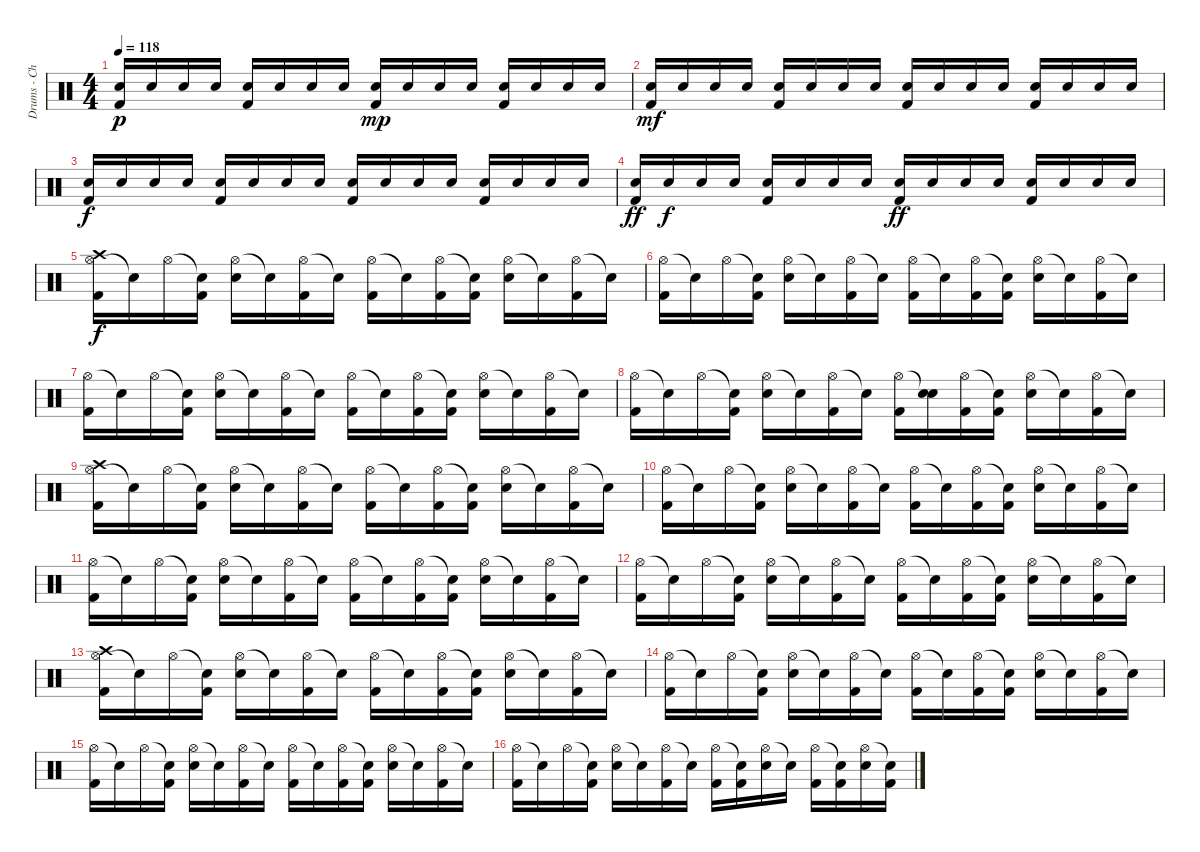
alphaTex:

\track ("Drums - Chad" "Drums - Ch") {instrument percussion}
\staff {score}
\articulation defaults
\ts (4 4)
\tempo 118
\clef neutral
\ks c
("Kick (hit) 2" "Electric Snare (hit)").16{dy p} "Electric Snare (hit)".16 "Electric Snare (hit)".16 "Electric Snare (hit)".16 ("Kick (hit) 2" "Electric Snare (hit)").16 "Electric Snare (hit)".16 "Electric Snare (hit)".16 "Electric Snare (hit)".16 ("Kick (hit) 2" "Electric Snare (hit)").16{dy mp} "Electric Snare (hit)".16 "Electric Snare (hit)".16 "Electric Snare (hit)".16 ("Kick (hit) 2" "Electric Snare (hit)").16 "Electric Snare (hit)".16 "Electric Snare (hit)".16 "Electric Snare (hit)".16 |
("Kick (hit) 2" "Electric Snare (hit)").16{dy mf} "Electric Snare (hit)".16 "Electric Snare (hit)".16 "Electric Snare (hit)".16 ("Kick (hit) 2" "Electric Snare (hit)").16 "Electric Snare (hit)".16 "Electric Snare (hit)".16 "Electric Snare (hit)".16 ("Kick (hit) 2" "Electric Snare (hit)").16 "Electric Snare (hit)".16 "Electric Snare (hit)".16 "Electric Snare (hit)".16 ("Kick (hit) 2" "Electric Snare (hit)").16 "Electric Snare (hit)".16 "Electric Snare (hit)".16 "Electric Snare (hit)".16 |
("Kick (hit) 2" "Electric Snare (hit)").16{dy f} "Electric Snare (hit)".16 "Electric Snare (hit)".16 "Electric Snare (hit)".16 ("Kick (hit) 2" "Electric Snare (hit)").16 "Electric Snare (hit)".16 "Electric Snare (hit)".16 "Electric Snare (hit)".16 ("Kick (hit) 2" "Electric Snare (hit)").16 "Electric Snare (hit)".16 "Electric Snare (hit)".16 "Electric Snare (hit)".16 ("Kick (hit) 2" "Electric Snare (hit)").16 "Electric Snare (hit)".16 "Electric Snare (hit)".16 "Electric Snare (hit)".16 |
("Kick (hit) 2" "Electric Snare (hit)").16{dy ff} "Electric Snare (hit)".16{dy f} "Electric Snare (hit)".16 "Electric Snare (hit)".16 ("Kick (hit) 2" "Electric Snare (hit)").16 "Electric Snare (hit)".16 "Electric Snare (hit)".16 "Electric Snare (hit)".16 ("Kick (hit) 2" "Electric Snare (hit)").16{dy ff} "Electric Snare (hit)".16 "Electric Snare (hit)".16 "Electric Snare (hit)".16 ("Kick (hit) 2" "Electric Snare (hit)").16 "Electric Snare (hit)".16 "Electric Snare (hit)".16 "Electric Snare (hit)".16 |
("Hi-Hat (open)" "Kick (hit) 2" "Crash high (hit)").16{dy f volume 15} "Snare (hit)"{t}.16 "Hi-Hat (open)".16 ("Snare (hit)"{t} "Kick (hit) 2").16 ("Hi-Hat (open)" "Electric Snare (hit)").16 "Snare (hit)"{t}.16 ("Hi-Hat (open)" "Kick (hit) 2").16 "Snare (hit)"{t}.16 ("Hi-Hat (open)" "Kick (hit) 2").16 "Snare (hit)"{t}.16 ("Hi-Hat (open)" "Kick (hit) 2").16 ("Snare (hit)"{t} "Kick (hit) 2").16 ("Hi-Hat (open)" "Electric Snare (hit)").16 "Snare (hit)"{t}.16 ("Hi-Hat (open)" "Kick (hit) 2").16 "Snare (hit)"{t}.16 |
("Hi-Hat (open)" "Kick (hit) 2").16 "Snare (hit)"{t}.16 "Hi-Hat (open)".16 ("Snare (hit)"{t} "Kick (hit) 2").16 ("Hi-Hat (open)" "Electric Snare (hit)").16 "Snare (hit)"{t}.16 ("Hi-Hat (open)" "Kick (hit) 2").16 "Snare (hit)"{t}.16 ("Hi-Hat (open)" "Kick (hit) 2").16 "Snare (hit)"{t}.16 ("Hi-Hat (open)" "Kick (hit) 2").16 ("Snare (hit)"{t} "Kick (hit) 2").16 ("Hi-Hat (open)" "Electric Snare (hit)").16 "Snare (hit)"{t}.16 ("Hi-Hat (open)" "Kick (hit) 2").16 "Snare (hit)"{t}.16 |
("Hi-Hat (open)" "Kick (hit) 2").16 "Snare (hit)"{t}.16 "Hi-Hat (open)".16 ("Snare (hit)"{t} "Kick (hit) 2").16 ("Hi-Hat (open)" "Electric Snare (hit)").16 "Snare (hit)"{t}.16 ("Hi-Hat (open)" "Kick (hit) 2").16 "Snare (hit)"{t}.16 ("Hi-Hat (open)" "Kick (hit) 2").16 "Snare (hit)"{t}.16 ("Hi-Hat (open)" "Kick (hit) 2").16 ("Snare (hit)"{t} "Kick (hit) 2").16 ("Hi-Hat (open)" "Electric Snare (hit)").16 "Snare (hit)"{t}.16 ("Hi-Hat (open)" "Kick (hit) 2").16 "Snare (hit)"{t}.16 |
("Hi-Hat (open)" "Kick (hit) 2").16 "Snare (hit)"{t}.16 "Hi-Hat (open)".16 ("Snare (hit)"{t} "Kick (hit) 2").16 ("Hi-Hat (open)" "Electric Snare (hit)").16 "Snare (hit)"{t}.16 ("Hi-Hat (open)" "Kick (hit) 2").16 "Snare (hit)"{t}.16 ("Hi-Hat (open)" "Kick (hit) 2").16 ("Snare (hit)"{t} "Electric Snare (hit)").16 ("Hi-Hat (open)" "Kick (hit) 2").16 ("Snare (hit)"{t} "Kick (hit) 2").16 ("Hi-Hat (open)" "Electric Snare (hit)").16 "Snare (hit)"{t}.16 ("Hi-Hat (open)" "Kick (hit) 2").16 "Snare (hit)"{t}.16 |
("Hi-Hat (open)" "Kick (hit) 2" "Crash high (hit)").16 "Snare (hit)"{t}.16 "Hi-Hat (open)".16 ("Snare (hit)"{t} "Kick (hit) 2").16 ("Hi-Hat (open)" "Electric Snare (hit)").16 "Snare (hit)"{t}.16 ("Hi-Hat (open)" "Kick (hit) 2").16 "Snare (hit)"{t}.16 ("Hi-Hat (open)" "Kick (hit) 2").16 "Snare (hit)"{t}.16 ("Hi-Hat (open)" "Kick (hit) 2").16 ("Snare (hit)"{t} "Kick (hit) 2").16 ("Hi-Hat (open)" "Electric Snare (hit)").16 "Snare (hit)"{t}.16 ("Hi-Hat (open)" "Kick (hit) 2").16 "Snare (hit)"{t}.16 |
("Hi-Hat (open)" "Kick (hit) 2").16 "Snare (hit)"{t}.16 "Hi-Hat (open)".16 ("Snare (hit)"{t} "Kick (hit) 2").16 ("Hi-Hat (open)" "Electric Snare (hit)").16 "Snare (hit)"{t}.16 ("Hi-Hat (open)" "Kick (hit) 2").16 "Snare (hit)"{t}.16 ("Hi-Hat (open)" "Kick (hit) 2").16 "Snare (hit)"{t}.16 ("Hi-Hat (open)" "Kick (hit) 2").16 ("Snare (hit)"{t} "Kick (hit) 2").16 ("Hi-Hat (open)" "Electric Snare (hit)").16 "Snare (hit)"{t}.16 ("Hi-Hat (open)" "Kick (hit) 2").16 "Snare (hit)"{t}.16 |
("Hi-Hat (open)" "Kick (hit) 2").16 "Snare (hit)"{t}.16 "Hi-Hat (open)".16 ("Snare (hit)"{t} "Kick (hit) 2").16 ("Hi-Hat (open)" "Electric Snare (hit)").16 "Snare (hit)"{t}.16 ("Hi-Hat (open)" "Kick (hit) 2").16 "Snare (hit)"{t}.16 ("Hi-Hat (open)" "Kick (hit) 2").16 "Snare (hit)"{t}.16 ("Hi-Hat (open)" "Kick (hit) 2").16 ("Snare (hit)"{t} "Kick (hit) 2").16 ("Hi-Hat (open)" "Electric Snare (hit)").16 "Snare (hit)"{t}.16 ("Hi-Hat (open)" "Kick (hit) 2").16 "Snare (hit)"{t}.16 |
("Hi-Hat (open)" "Kick (hit) 2").16 "Snare (hit)"{t}.16 "Hi-Hat (open)".16 ("Snare (hit)"{t} "Kick (hit) 2").16 ("Hi-Hat (open)" "Electric Snare (hit)").16 "Snare (hit)"{t}.16 ("Hi-Hat (open)" "Kick (hit) 2").16 "Snare (hit)"{t}.16 ("Hi-Hat (open)" "Kick (hit) 2").16 "Snare (hit)"{t}.16 ("Hi-Hat (open)" "Kick (hit) 2").16 ("Snare (hit)"{t} "Kick (hit) 2").16 ("Hi-Hat (open)" "Electric Snare (hit)").16 "Snare (hit)"{t}.16 ("Hi-Hat (open)" "Kick (hit) 2").16 "Snare (hit)"{t}.16 |
("Hi-Hat (open)" "Kick (hit) 2" "Crash high (hit)").16 "Snare (hit)"{t}.16 "Hi-Hat (open)".16 ("Snare (hit)"{t} "Kick (hit) 2").16 ("Hi-Hat (open)" "Electric Snare (hit)").16 "Snare (hit)"{t}.16 ("Hi-Hat (open)" "Kick (hit) 2").16 "Snare (hit)"{t}.16 ("Hi-Hat (open)" "Kick (hit) 2").16 "Snare (hit)"{t}.16 ("Hi-Hat (open)" "Kick (hit) 2").16 ("Snare (hit)"{t} "Kick (hit) 2").16 ("Hi-Hat (open)" "Electric Snare (hit)").16 "Snare (hit)"{t}.16 ("Hi-Hat (open)" "Kick (hit) 2").16 "Snare (hit)"{t}.16 |
("Hi-Hat (open)" "Kick (hit) 2").16 "Snare (hit)"{t}.16 "Hi-Hat (open)".16 ("Snare (hit)"{t} "Kick (hit) 2").16 ("Hi-Hat (open)" "Electric Snare (hit)").16 "Snare (hit)"{t}.16 ("Hi-Hat (open)" "Kick (hit) 2").16 "Snare (hit)"{t}.16 ("Hi-Hat (open)" "Kick (hit) 2").16 "Snare (hit)"{t}.16 ("Hi-Hat (open)" "Kick (hit) 2").16 ("Snare (hit)"{t} "Kick (hit) 2").16 ("Hi-Hat (open)" "Electric Snare (hit)").16 "Snare (hit)"{t}.16 ("Hi-Hat (open)" "Kick (hit) 2").16 "Snare (hit)"{t}.16 |
("Hi-Hat (open)" "Kick (hit) 2").16 "Snare (hit)"{t}.16 "Hi-Hat (open)".16 ("Snare (hit)"{t} "Kick (hit) 2").16 ("Hi-Hat (open)" "Electric Snare (hit)").16 "Snare (hit)"{t}.16 ("Hi-Hat (open)" "Kick (hit) 2").16 "Snare (hit)"{t}.16 ("Hi-Hat (open)" "Kick (hit) 2").16 "Snare (hit)"{t}.16 ("Hi-Hat (open)" "Kick (hit) 2").16 ("Snare (hit)"{t} "Kick (hit) 2").16 ("Hi-Hat (open)" "Electric Snare (hit)").16 "Snare (hit)"{t}.16 ("Hi-Hat (open)" "Kick (hit) 2").16 "Snare (hit)"{t}.16 |
("Hi-Hat (open)" "Kick (hit) 2").16 "Snare (hit)"{t}.16 "Hi-Hat (open)".16 ("Snare (hit)"{t} "Kick (hit) 2").16 ("Hi-Hat (open)" "Electric Snare (hit)").16 "Snare (hit)"{t}.16 ("Hi-Hat (open)" "Kick (hit) 2").16 "Snare (hit)"{t}.16 ("Hi-Hat (open)" "Kick (hit) 2").16 ("Snare (hit)"{t} "Kick (hit) 2").16 ("Hi-Hat (open)" "Electric Snare (hit)").16 "Snare (hit)"{t}.16 ("Hi-Hat (open)" "Kick (hit) 2").16 ("Snare (hit)"{t} "Kick (hit) 2").16 ("Hi-Hat (open)" "Electric Snare (hit)").16 ("Snare (hit)"{t} "Kick (hit) 2").16
